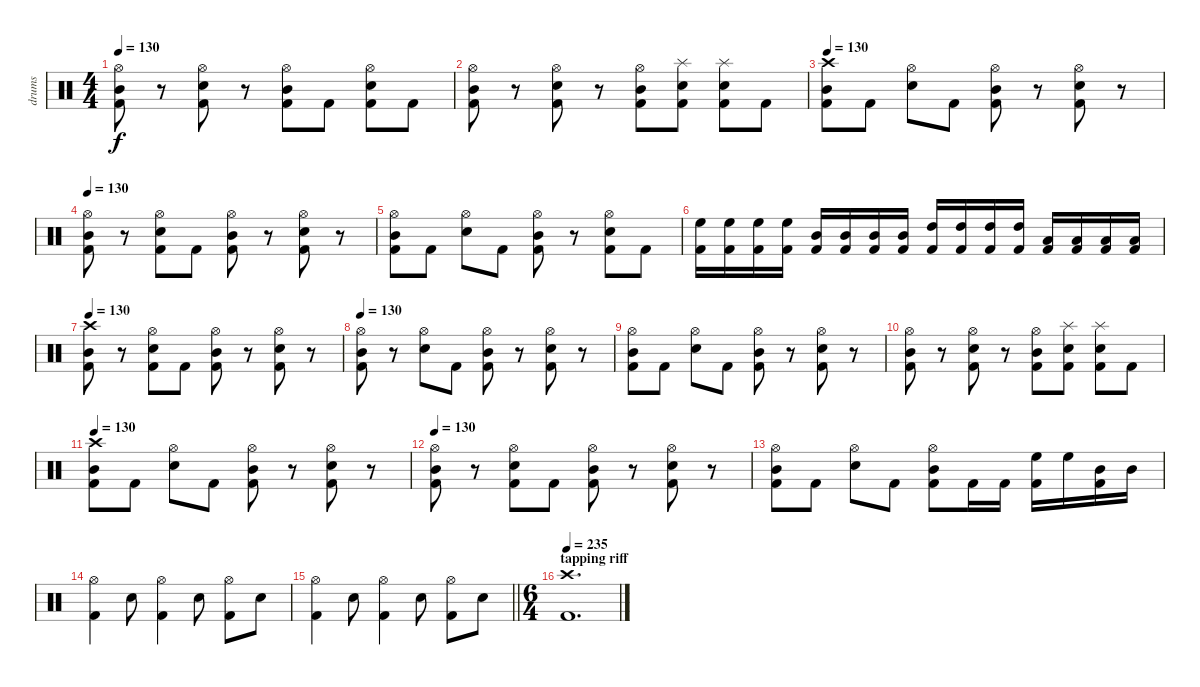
\track ("drums" "drums") {instrument percussion}
\staff {score}
\articulation defaults
\ts (4 4)
\tempo 130
\clef neutral
\ks c
("Hi-Hat (open)" "Mid Tom (hit)" "Kick (hit) 2").8{dy f} r.8 ("Hi-Hat (open)" "Snare (hit) 2" "Kick (hit) 2").8 r.8 ("Hi-Hat (open)" "Mid Tom (hit)" "Kick (hit) 2").8 "Kick (hit) 2".8 ("Hi-Hat (open)" "Snare (hit) 2" "Kick (hit) 2").8 "Kick (hit) 2".8 |
("Hi-Hat (open)" "Mid Tom (hit)" "Kick (hit) 2").8 r.8 ("Hi-Hat (open)" "Snare (hit) 2" "Kick (hit) 2").8 r.8 ("Hi-Hat (open)" "Mid Tom (hit)" "Kick (hit) 2").8 ("Splash (hit)" "Snare (hit) 2" "Kick (hit) 2").8 ("Splash (hit)" "Snare (hit) 2" "Kick (hit) 2").8 "Kick (hit) 2".8 |
\tempo 130
("Crash high (hit)" "Mid Tom (hit)" "Kick (hit) 2").8 "Kick (hit) 2".8 ("Hi-Hat (open)" "Snare (hit) 2").8 "Kick (hit) 2".8 ("Hi-Hat (open)" "Mid Tom (hit)" "Kick (hit) 2").8 r.8 ("Hi-Hat (open)" "Snare (hit) 2" "Kick (hit) 2").8 r.8 |
\tempo 130
("Hi-Hat (open)" "Mid Tom (hit)" "Kick (hit) 2").8 r.8 ("Hi-Hat (open)" "Snare (hit) 2" "Kick (hit) 2").8 "Kick (hit) 2".8 ("Hi-Hat (open)" "Mid Tom (hit)" "Kick (hit) 2").8 r.8 ("Hi-Hat (open)" "Snare (hit) 2" "Kick (hit) 2").8 r.8 |
("Hi-Hat (open)" "Mid Tom (hit)" "Kick (hit) 2").8 "Kick (hit) 2".8 ("Hi-Hat (open)" "Snare (hit) 2").8 "Kick (hit) 2".8 ("Hi-Hat (open)" "Mid Tom (hit)" "Kick (hit) 2").8 r.8 ("Hi-Hat (open)" "Snare (hit) 2" "Kick (hit) 2").8 "Kick (hit) 2".8 |
("High Floor Tom (hit)" "Kick (hit) 2").16 ("High Floor Tom (hit)" "Kick (hit) 2").16 ("High Floor Tom (hit)" "Kick (hit) 2").16 ("High Floor Tom (hit)" "Kick (hit) 2").16 ("Mid Tom (hit)" "Kick (hit) 2").16 ("Mid Tom (hit)" "Kick (hit) 2").16 ("Mid Tom (hit)" "Kick (hit) 2").16 ("Mid Tom (hit)" "Kick (hit) 2").16 ("High Tom (hit)" "Kick (hit) 2").16 ("High Tom (hit)" "Kick (hit) 2").16 ("High Tom (hit)" "Kick (hit) 2").16 ("High Tom (hit)" "Kick (hit) 2").16 ("Low Tom (hit)" "Kick (hit) 2").16 ("Low Tom (hit)" "Kick (hit) 2").16 ("Low Tom (hit)" "Kick (hit) 2").16 ("Low Tom (hit)" "Kick (hit) 2").16 |
\tempo 130
("Crash high (hit)" "Mid Tom (hit)" "Kick (hit) 2").8 r.8 ("Hi-Hat (open)" "Snare (hit) 2" "Kick (hit) 2").8 "Kick (hit) 2".8 ("Hi-Hat (open)" "Mid Tom (hit)" "Kick (hit) 2").8 r.8 ("Hi-Hat (open)" "Snare (hit) 2" "Kick (hit) 2").8 r.8 |
\tempo 130
("Hi-Hat (open)" "Mid Tom (hit)" "Kick (hit) 2").8 r.8 ("Hi-Hat (open)" "Snare (hit) 2").8 "Kick (hit) 2".8 ("Hi-Hat (open)" "Mid Tom (hit)" "Kick (hit) 2").8 r.8 ("Hi-Hat (open)" "Snare (hit) 2" "Kick (hit) 2").8 r.8 |
("Hi-Hat (open)" "Mid Tom (hit)" "Kick (hit) 2").8 "Kick (hit) 2".8 ("Hi-Hat (open)" "Snare (hit) 2").8 "Kick (hit) 2".8 ("Hi-Hat (open)" "Mid Tom (hit)" "Kick (hit) 2").8 r.8 ("Hi-Hat (open)" "Snare (hit) 2" "Kick (hit) 2").8 r.8 |
("Hi-Hat (open)" "Mid Tom (hit)" "Kick (hit) 2").8 r.8 ("Hi-Hat (open)" "Snare (hit) 2" "Kick (hit) 2").8 r.8 ("Hi-Hat (open)" "Mid Tom (hit)" "Kick (hit) 2").8 ("Splash (hit)" "Snare (hit) 2" "Kick (hit) 2").8 ("Splash (hit)" "Snare (hit) 2" "Kick (hit) 2").8 "Kick (hit) 2".8 |
\tempo 130
("Crash high (hit)" "Mid Tom (hit)" "Kick (hit) 2").8 "Kick (hit) 2".8 ("Hi-Hat (open)" "Snare (hit) 2").8 "Kick (hit) 2".8 ("Hi-Hat (open)" "Mid Tom (hit)" "Kick (hit) 2").8 r.8 ("Hi-Hat (open)" "Snare (hit) 2" "Kick (hit) 2").8 r.8 |
\tempo 130
("Hi-Hat (open)" "Mid Tom (hit)" "Kick (hit) 2").8 r.8 ("Hi-Hat (open)" "Snare (hit) 2" "Kick (hit) 2").8 "Kick (hit) 2".8 ("Hi-Hat (open)" "Mid Tom (hit)" "Kick (hit) 2").8 r.8 ("Hi-Hat (open)" "Snare (hit) 2" "Kick (hit) 2").8 r.8 |
("Hi-Hat (open)" "Mid Tom (hit)" "Kick (hit) 2").8 "Kick (hit) 2".8 ("Hi-Hat (open)" "Snare (hit) 2").8 "Kick (hit) 2".8 ("Hi-Hat (open)" "Mid Tom (hit)" "Kick (hit) 2").8 "Kick (hit) 2".16 "Kick (hit) 2".16 ("High Floor Tom (hit)" "Kick (hit) 2").16 "High Floor Tom (hit)".16 ("Mid Tom (hit)" "Kick (hit) 2").16 "Mid Tom (hit)".16 |
("Hi-Hat (open)" "Kick (hit) 2").4 "Snare (hit) 2".8 ("Hi-Hat (open)" "Kick (hit) 2").4 "Snare (hit) 2".8 ("Hi-Hat (open)" "Kick (hit) 2").8 "Snare (hit) 2".8 |
\barLineRight lightlight
("Hi-Hat (open)" "Kick (hit) 2").4 "Snare (hit) 2".8 ("Hi-Hat (open)" "Kick (hit) 2").4 "Snare (hit) 2".8 ("Hi-Hat (open)" "Kick (hit) 2").8 "Snare (hit) 2".8 |
\ts (6 4)
\section ("" "tapping riff")
\tempo 235
("Crash high (hit)" "Kick (hit) 2").1{d}
